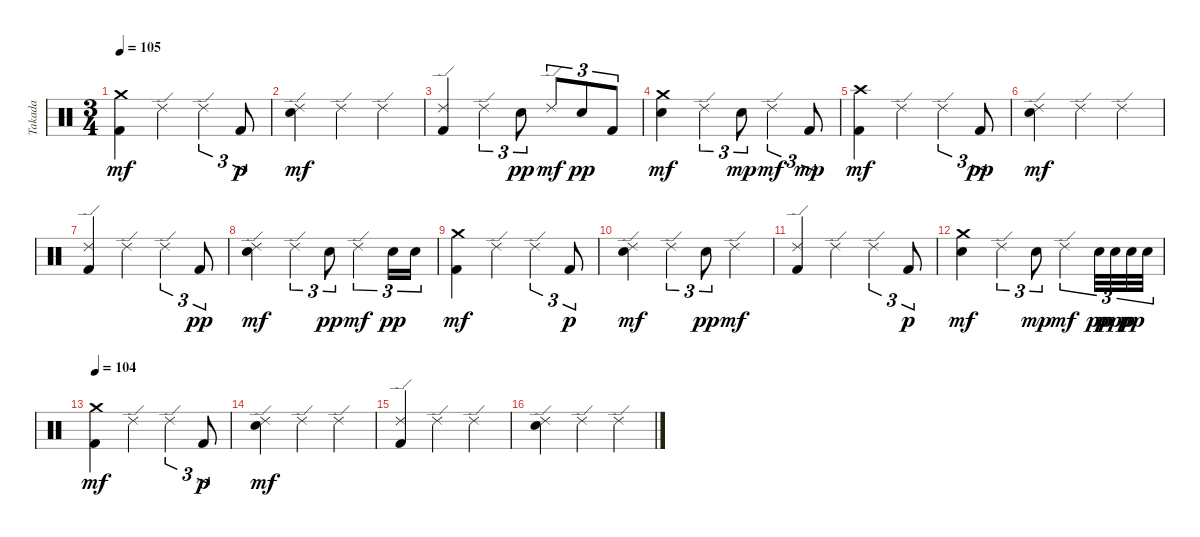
\track ("Takada" "Takada") {instrument percussion}
\staff {score}
\articulation defaults
\ts (3 4)
\tempo 105
\clef neutral
\ks c
("Crash medium (hit)" "Kick (hit) 2").4{dy mf} "Ride (edge) 2".4 "Ride (edge) 2".4{tu (3 2)} "Kick (hit) 2".8{tu (3 2) dy p} |
("Ride (edge) 2" "Electric Snare (hit)").4{dy mf} "Ride (edge) 2".4 "Ride (edge) 2".4 |
("Ride (edge) 2" "Kick (hit) 2").4 "Ride (edge) 2".4{tu (3 2)} "Electric Snare (hit)".8{tu (3 2) dy pp} "Ride (edge) 2".8{tu (3 2) dy mf} "Electric Snare (hit)".8{tu (3 2) dy pp} "Kick (hit) 2".8{tu (3 2)} |
("Crash medium (hit)" "Electric Snare (hit)").4{dy mf} "Ride (edge) 2".4{tu (3 2)} "Electric Snare (hit)".8{tu (3 2) dy mp} "Ride (edge) 2".4{tu (3 2) dy mf} "Kick (hit) 2".8{tu (3 2) dy mp} |
("Crash high (hit)" "Kick (hit) 2").4{dy mf} "Ride (edge) 2".4 "Ride (edge) 2".4{tu (3 2)} "Kick (hit) 2".8{tu (3 2) dy pp} |
("Ride (edge) 2" "Electric Snare (hit)").4{dy mf} "Ride (edge) 2".4 "Ride (edge) 2".4 |
("Ride (edge) 2" "Kick (hit) 2").4 "Ride (edge) 2".4 "Ride (edge) 2".4{tu (3 2)} "Kick (hit) 2".8{tu (3 2) dy pp} |
("Ride (edge) 2" "Electric Snare (hit)").4{dy mf} "Ride (edge) 2".4{tu (3 2)} "Electric Snare (hit)".8{tu (3 2) dy pp} "Ride (edge) 2".4{tu (3 2) dy mf} "Electric Snare (hit)".16{tu (3 2) dy pp} "Electric Snare (hit)".16{tu (3 2)} |
("Crash medium (hit)" "Kick (hit) 2").4{dy mf} "Ride (edge) 2".4 "Ride (edge) 2".4{tu (3 2)} "Kick (hit) 2".8{tu (3 2) dy p} |
("Ride (edge) 2" "Electric Snare (hit)").4{dy mf} "Ride (edge) 2".4{tu (3 2)} "Electric Snare (hit)".8{tu (3 2) dy pp} "Ride (edge) 2".4{dy mf} |
("Ride (edge) 2" "Kick (hit) 2").4 "Ride (edge) 2".4 "Ride (edge) 2".4{tu (3 2)} "Kick (hit) 2".8{tu (3 2) dy p} |
("Crash medium (hit)" "Electric Snare (hit)").4{dy mf} "Ride (edge) 2".4{tu (3 2)} "Electric Snare (hit)".8{tu (3 2) dy mp} "Ride (edge) 2".4{tu (3 2) dy mf} "Electric Snare (hit)".32{tu (3 2) dy pp} "Electric Snare (hit)".32{tu (3 2) dy ppp} "Electric Snare (hit)".32{tu (3 2) dy pp} "Electric Snare (hit)".32{tu (3 2)} |
\tempo 104
("Crash medium (hit)" "Kick (hit) 2").4{dy mf} "Ride (edge) 2".4 "Ride (edge) 2".4{tu (3 2)} "Kick (hit) 2".8{tu (3 2) dy p} |
("Ride (edge) 2" "Electric Snare (hit)").4{dy mf} "Ride (edge) 2".4 "Ride (edge) 2".4 |
("Ride (edge) 2" "Kick (hit) 2").4 "Ride (edge) 2".4 "Ride (edge) 2".4 |
("Ride (edge) 2" "Electric Snare (hit)").4 "Ride (edge) 2".4 "Ride (edge) 2".4
